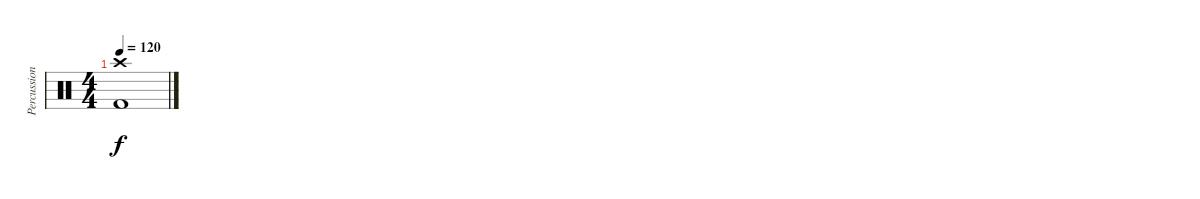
\track ("Percussions" "Percussion") {instrument percussion}
\staff {score}
\articulation defaults
\ts (4 4)
\tempo 120
\clef neutral
\ks c
("Crash high (hit)" "Kick (hit) 2").1{dy f}
